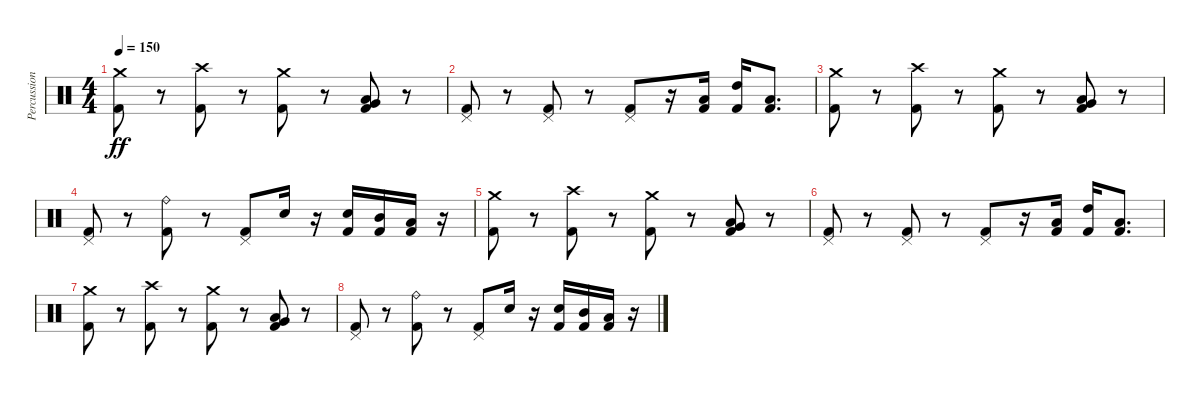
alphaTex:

\track ("Percussion" "Percussion") {instrument percussion}
\staff {score}
\articulation defaults
\ts (4 4)
\tempo 150
\clef neutral
\ks c
("Crash medium (hit)" "Kick (hit) 2").8{dy ff} r.8 ("Crash high (hit)" "Kick (hit) 2").8 r.8 ("Crash medium (hit)" "Kick (hit) 2").8 r.8 ("Very Low Tom (hit)" "Low Tom (hit)" "Kick (hit) 2").8{bd 60} r.8 |
("Pedal Hi-Hat (hit)" "Kick (hit) 2").8 r.8 ("Pedal Hi-Hat (hit)" "Kick (hit) 2").8 r.8 ("Pedal Hi-Hat (hit)" "Kick (hit) 2").8 r.16 ("Low Tom (hit)" "Kick (hit) 2").16 ("High Tom (hit)" "Kick (hit) 2").16 ("Low Tom (hit)" "Kick (hit) 2").8{d} |
("Crash medium (hit)" "Kick (hit) 2").8 r.8 ("Crash high (hit)" "Kick (hit) 2").8 r.8 ("Crash medium (hit)" "Kick (hit) 2").8 r.8 ("Very Low Tom (hit)" "Low Tom (hit)" "Kick (hit) 2").8{bd 60} r.8 |
("Pedal Hi-Hat (hit)" "Kick (hit) 2").8 r.8 ("Ride (bell)" "Kick (hit) 2").8 r.8 ("Pedal Hi-Hat (hit)" "Kick (hit) 2").8 "Electric Snare (hit)".16 r.16 ("Electric Snare (hit)" "Kick (hit) 2").16 ("Mid Tom (hit)" "Kick (hit) 2").16 ("Low Tom (hit)" "Kick (hit) 2").16 r.16 |
("Crash medium (hit)" "Kick (hit) 2").8 r.8 ("Crash high (hit)" "Kick (hit) 2").8 r.8 ("Crash medium (hit)" "Kick (hit) 2").8 r.8 ("Very Low Tom (hit)" "Low Tom (hit)" "Kick (hit) 2").8{bd 60} r.8 |
("Pedal Hi-Hat (hit)" "Kick (hit) 2").8 r.8 ("Pedal Hi-Hat (hit)" "Kick (hit) 2").8 r.8 ("Pedal Hi-Hat (hit)" "Kick (hit) 2").8 r.16 ("Low Tom (hit)" "Kick (hit) 2").16 ("High Tom (hit)" "Kick (hit) 2").16 ("Low Tom (hit)" "Kick (hit) 2").8{d} |
("Crash medium (hit)" "Kick (hit) 2").8 r.8 ("Crash high (hit)" "Kick (hit) 2").8 r.8 ("Crash medium (hit)" "Kick (hit) 2").8 r.8 ("Very Low Tom (hit)" "Low Tom (hit)" "Kick (hit) 2").8{bd 60} r.8 |
("Pedal Hi-Hat (hit)" "Kick (hit) 2").8 r.8 ("Ride (bell)" "Kick (hit) 2").8 r.8 ("Pedal Hi-Hat (hit)" "Kick (hit) 2").8 "Electric Snare (hit)".16 r.16 ("Electric Snare (hit)" "Kick (hit) 2").16 ("Mid Tom (hit)" "Kick (hit) 2").16 ("Low Tom (hit)" "Kick (hit) 2").16 r.16
